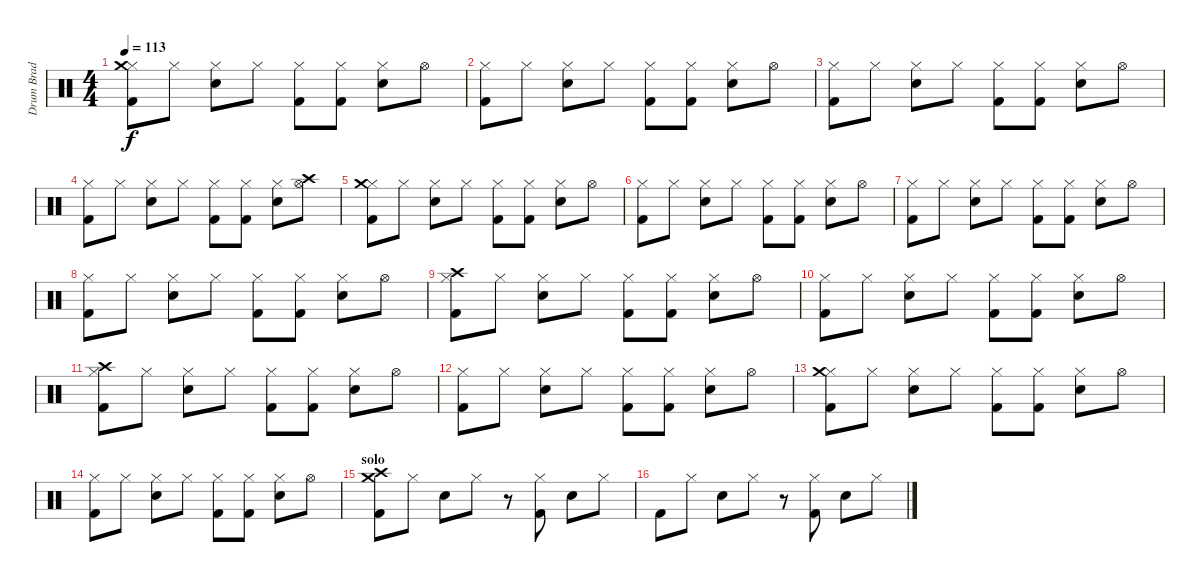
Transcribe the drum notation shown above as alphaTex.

\track ("Drum Brad Wilk" "Drum Brad ") {instrument percussion}
\staff {score}
\articulation defaults
\ts (4 4)
\tempo 113
\clef neutral
\ks c
("Hi-Hat (closed)" "Crash medium (hit)" "Kick (hit) 2").8{dy f} "Hi-Hat (closed)".8 ("Hi-Hat (closed)" "Snare (hit) 2").8 "Hi-Hat (closed)".8 ("Hi-Hat (closed)" "Kick (hit) 2").8 ("Hi-Hat (closed)" "Kick (hit) 2").8 ("Hi-Hat (closed)" "Snare (hit) 2").8 "Hi-Hat (open)".8 |
("Hi-Hat (closed)" "Kick (hit) 2").8 "Hi-Hat (closed)".8 ("Hi-Hat (closed)" "Snare (hit) 2").8 "Hi-Hat (closed)".8 ("Hi-Hat (closed)" "Kick (hit) 2").8 ("Hi-Hat (closed)" "Kick (hit) 2").8 ("Hi-Hat (closed)" "Snare (hit) 2").8 "Hi-Hat (open)".8 |
("Hi-Hat (closed)" "Kick (hit) 2").8 "Hi-Hat (closed)".8 ("Hi-Hat (closed)" "Snare (hit) 2").8 "Hi-Hat (closed)".8 ("Hi-Hat (closed)" "Kick (hit) 2").8 ("Hi-Hat (closed)" "Kick (hit) 2").8 ("Hi-Hat (closed)" "Snare (hit) 2").8 "Hi-Hat (open)".8 |
("Hi-Hat (closed)" "Kick (hit) 2").8 "Hi-Hat (closed)".8 ("Hi-Hat (closed)" "Snare (hit) 2").8 "Hi-Hat (closed)".8 ("Hi-Hat (closed)" "Kick (hit) 2").8 ("Hi-Hat (closed)" "Kick (hit) 2").8 ("Hi-Hat (closed)" "Snare (hit) 2").8 ("Hi-Hat (open)" "Crash high (hit)").8 |
("Hi-Hat (closed)" "Crash medium (hit)" "Kick (hit) 2").8 "Hi-Hat (closed)".8 ("Hi-Hat (closed)" "Snare (hit) 2").8 "Hi-Hat (closed)".8 ("Hi-Hat (closed)" "Kick (hit) 2").8 ("Hi-Hat (closed)" "Kick (hit) 2").8 ("Hi-Hat (closed)" "Snare (hit) 2").8 "Hi-Hat (open)".8 |
("Hi-Hat (closed)" "Kick (hit) 2").8 "Hi-Hat (closed)".8 ("Hi-Hat (closed)" "Snare (hit) 2").8 "Hi-Hat (closed)".8 ("Hi-Hat (closed)" "Kick (hit) 2").8 ("Hi-Hat (closed)" "Kick (hit) 2").8 ("Hi-Hat (closed)" "Snare (hit) 2").8 "Hi-Hat (open)".8 |
("Hi-Hat (closed)" "Kick (hit) 2").8 "Hi-Hat (closed)".8 ("Hi-Hat (closed)" "Snare (hit) 2").8 "Hi-Hat (closed)".8 ("Hi-Hat (closed)" "Kick (hit) 2").8 ("Hi-Hat (closed)" "Kick (hit) 2").8 ("Hi-Hat (closed)" "Snare (hit) 2").8 "Hi-Hat (open)".8 |
("Hi-Hat (closed)" "Kick (hit) 2").8 "Hi-Hat (closed)".8 ("Hi-Hat (closed)" "Snare (hit) 2").8 "Hi-Hat (closed)".8 ("Hi-Hat (closed)" "Kick (hit) 2").8 ("Hi-Hat (closed)" "Kick (hit) 2").8 ("Hi-Hat (closed)" "Snare (hit) 2").8 "Hi-Hat (open)".8 |
("Hi-Hat (closed)" "Crash high (hit)" "Kick (hit) 2").8 "Hi-Hat (closed)".8 ("Hi-Hat (closed)" "Snare (hit) 2").8 "Hi-Hat (closed)".8 ("Hi-Hat (closed)" "Kick (hit) 2").8 ("Hi-Hat (closed)" "Kick (hit) 2").8 ("Hi-Hat (closed)" "Snare (hit) 2").8 "Hi-Hat (open)".8 |
("Hi-Hat (closed)" "Kick (hit) 2").8 "Hi-Hat (closed)".8 ("Hi-Hat (closed)" "Snare (hit) 2").8 "Hi-Hat (closed)".8 ("Hi-Hat (closed)" "Kick (hit) 2").8 ("Hi-Hat (closed)" "Kick (hit) 2").8 ("Hi-Hat (closed)" "Snare (hit) 2").8 "Hi-Hat (open)".8 |
("Hi-Hat (closed)" "Crash high (hit)" "Kick (hit) 2").8 "Hi-Hat (closed)".8 ("Hi-Hat (closed)" "Snare (hit) 2").8 "Hi-Hat (closed)".8 ("Hi-Hat (closed)" "Kick (hit) 2").8 ("Hi-Hat (closed)" "Kick (hit) 2").8 ("Hi-Hat (closed)" "Snare (hit) 2").8 "Hi-Hat (open)".8 |
("Hi-Hat (closed)" "Kick (hit) 2").8 "Hi-Hat (closed)".8 ("Hi-Hat (closed)" "Snare (hit) 2").8 "Hi-Hat (closed)".8 ("Hi-Hat (closed)" "Kick (hit) 2").8 ("Hi-Hat (closed)" "Kick (hit) 2").8 ("Hi-Hat (closed)" "Snare (hit) 2").8 "Hi-Hat (open)".8 |
("Hi-Hat (closed)" "Crash medium (hit)" "Kick (hit) 2").8 "Hi-Hat (closed)".8 ("Hi-Hat (closed)" "Snare (hit) 2").8 "Hi-Hat (closed)".8 ("Hi-Hat (closed)" "Kick (hit) 2").8 ("Hi-Hat (closed)" "Kick (hit) 2").8 ("Hi-Hat (closed)" "Snare (hit) 2").8 "Hi-Hat (open)".8 |
("Hi-Hat (closed)" "Kick (hit) 2").8 "Hi-Hat (closed)".8 ("Hi-Hat (closed)" "Snare (hit) 2").8 "Hi-Hat (closed)".8 ("Hi-Hat (closed)" "Kick (hit) 2").8 ("Hi-Hat (closed)" "Kick (hit) 2").8 ("Hi-Hat (closed)" "Snare (hit) 2").8 "Hi-Hat (open)".8 |
\section ("" "solo")
("Crash medium (hit)" "Crash high (hit)" "Kick (hit) 2").8 "Hi-Hat (closed)".8 "Snare (hit) 2".8 "Hi-Hat (closed)".8 r.8 ("Hi-Hat (closed)" "Kick (hit) 2").8 "Snare (hit) 2".8 "Hi-Hat (closed)".8 |
"Kick (hit) 2".8 "Hi-Hat (closed)".8 "Snare (hit) 2".8 "Hi-Hat (closed)".8 r.8 ("Hi-Hat (closed)" "Kick (hit) 2").8 "Snare (hit) 2".8 "Hi-Hat (closed)".8
